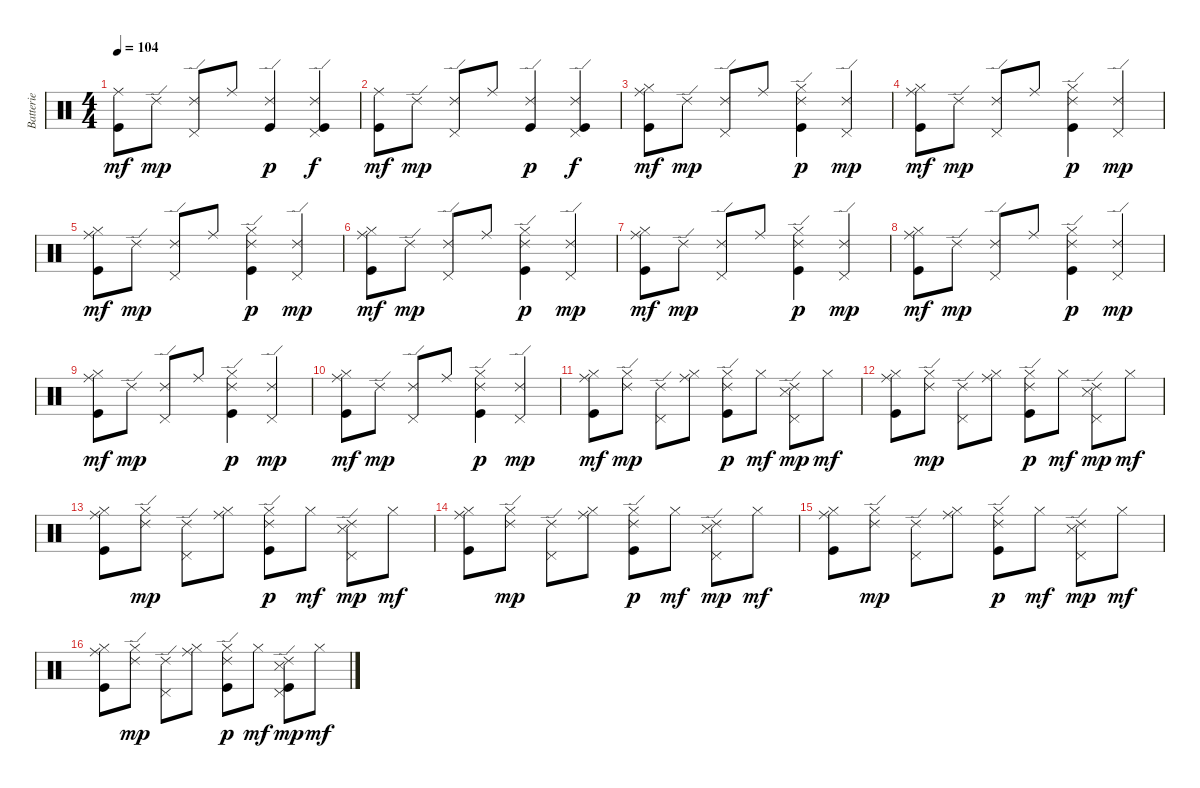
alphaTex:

\track ("Batterie" "Batterie") {instrument percussion}
\staff {score}
\articulation defaults
\ts (4 4)
\tempo 104
\clef neutral
\ks c
("Ride (middle)" "Kick (hit)").8{dy mf} "Ride (edge) 2".8{dy mp} ("Pedal Hi-Hat (hit)" "Ride (edge) 2").8 "Ride (middle)".8 ("Kick (hit)" "Ride (edge) 2").4{dy p} ("Pedal Hi-Hat (hit)" "Ride (edge) 2" "Kick (hit)").4{dy f} |
("Ride (middle)" "Kick (hit)").8{dy mf} "Ride (edge) 2".8{dy mp} ("Pedal Hi-Hat (hit)" "Ride (edge) 2").8 "Ride (middle)".8 ("Kick (hit)" "Ride (edge) 2").4{dy p} ("Pedal Hi-Hat (hit)" "Ride (edge) 2" "Kick (hit)").4{dy f} |
("Hi-Hat (closed)" "Ride (middle)" "Kick (hit)").8{dy mf} "Ride (edge) 2".8{dy mp} ("Pedal Hi-Hat (hit)" "Ride (edge) 2").8 "Ride (middle)".8 ("Hi-Hat (closed)" "Kick (hit)" "Ride (edge) 2").4{dy p} ("Pedal Hi-Hat (hit)" "Ride (edge) 2").4{dy mp} |
("Hi-Hat (closed)" "Ride (middle)" "Kick (hit)").8{dy mf} "Ride (edge) 2".8{dy mp} ("Pedal Hi-Hat (hit)" "Ride (edge) 2").8 "Ride (middle)".8 ("Hi-Hat (closed)" "Kick (hit)" "Ride (edge) 2").4{dy p} ("Pedal Hi-Hat (hit)" "Ride (edge) 2").4{dy mp} |
("Hi-Hat (closed)" "Ride (middle)" "Kick (hit)").8{dy mf} "Ride (edge) 2".8{dy mp} ("Pedal Hi-Hat (hit)" "Ride (edge) 2").8 "Ride (middle)".8 ("Hi-Hat (closed)" "Kick (hit)" "Ride (edge) 2").4{dy p} ("Pedal Hi-Hat (hit)" "Ride (edge) 2").4{dy mp} |
("Hi-Hat (closed)" "Ride (middle)" "Kick (hit)").8{dy mf} "Ride (edge) 2".8{dy mp} ("Pedal Hi-Hat (hit)" "Ride (edge) 2").8 "Ride (middle)".8 ("Hi-Hat (closed)" "Kick (hit)" "Ride (edge) 2").4{dy p} ("Pedal Hi-Hat (hit)" "Ride (edge) 2").4{dy mp} |
("Hi-Hat (closed)" "Ride (middle)" "Kick (hit)").8{dy mf} "Ride (edge) 2".8{dy mp} ("Pedal Hi-Hat (hit)" "Ride (edge) 2").8 "Ride (middle)".8 ("Hi-Hat (closed)" "Kick (hit)" "Ride (edge) 2").4{dy p} ("Pedal Hi-Hat (hit)" "Ride (edge) 2").4{dy mp} |
("Hi-Hat (closed)" "Ride (middle)" "Kick (hit)").8{dy mf} "Ride (edge) 2".8{dy mp} ("Pedal Hi-Hat (hit)" "Ride (edge) 2").8 "Ride (middle)".8 ("Hi-Hat (closed)" "Kick (hit)" "Ride (edge) 2").4{dy p} ("Pedal Hi-Hat (hit)" "Ride (edge) 2").4{dy mp} |
("Hi-Hat (closed)" "Ride (middle)" "Kick (hit)").8{dy mf} "Ride (edge) 2".8{dy mp} ("Pedal Hi-Hat (hit)" "Ride (edge) 2").8 "Ride (middle)".8 ("Hi-Hat (closed)" "Kick (hit)" "Ride (edge) 2").4{dy p} ("Pedal Hi-Hat (hit)" "Ride (edge) 2").4{dy mp} |
("Hi-Hat (closed)" "Ride (middle)" "Kick (hit)").8{dy mf} "Ride (edge) 2".8{dy mp} ("Pedal Hi-Hat (hit)" "Ride (edge) 2").8 "Ride (middle)".8 ("Hi-Hat (closed)" "Kick (hit)" "Ride (edge) 2").4{dy p} ("Pedal Hi-Hat (hit)" "Ride (edge) 2").4{dy mp} |
("Hi-Hat (closed)" "Ride (middle)" "Kick (hit)").8{dy mf} ("Hi-Hat (closed)" "Ride (edge) 2").8{dy mp} ("Pedal Hi-Hat (hit)" "Ride (edge) 2").8 ("Hi-Hat (closed)" "Ride (middle)").8 ("Hi-Hat (closed)" "Kick (hit)" "Ride (edge) 2").8{dy p} "Hi-Hat (closed)".8{dy mf} ("Snare (side stick) 3" "Pedal Hi-Hat (hit)" "Ride (edge) 2").8{dy mp} "Hi-Hat (closed)".8{dy mf} |
("Hi-Hat (closed)" "Ride (middle)" "Kick (hit)").8 ("Hi-Hat (closed)" "Ride (edge) 2").8{dy mp} ("Pedal Hi-Hat (hit)" "Ride (edge) 2").8 ("Hi-Hat (closed)" "Ride (middle)").8 ("Hi-Hat (closed)" "Kick (hit)" "Ride (edge) 2").8{dy p} "Hi-Hat (closed)".8{dy mf} ("Snare (side stick) 3" "Pedal Hi-Hat (hit)" "Ride (edge) 2").8{dy mp} "Hi-Hat (closed)".8{dy mf} |
("Hi-Hat (closed)" "Ride (middle)" "Kick (hit)").8 ("Hi-Hat (closed)" "Ride (edge) 2").8{dy mp} ("Pedal Hi-Hat (hit)" "Ride (edge) 2").8 ("Hi-Hat (closed)" "Ride (middle)").8 ("Hi-Hat (closed)" "Kick (hit)" "Ride (edge) 2").8{dy p} "Hi-Hat (closed)".8{dy mf} ("Snare (side stick) 3" "Pedal Hi-Hat (hit)" "Ride (edge) 2").8{dy mp} "Hi-Hat (closed)".8{dy mf} |
("Hi-Hat (closed)" "Ride (middle)" "Kick (hit)").8 ("Hi-Hat (closed)" "Ride (edge) 2").8{dy mp} ("Pedal Hi-Hat (hit)" "Ride (edge) 2").8 ("Hi-Hat (closed)" "Ride (middle)").8 ("Hi-Hat (closed)" "Kick (hit)" "Ride (edge) 2").8{dy p} "Hi-Hat (closed)".8{dy mf} ("Snare (side stick) 3" "Pedal Hi-Hat (hit)" "Ride (edge) 2").8{dy mp} "Hi-Hat (closed)".8{dy mf} |
("Hi-Hat (closed)" "Ride (middle)" "Kick (hit)").8 ("Hi-Hat (closed)" "Ride (edge) 2").8{dy mp} ("Pedal Hi-Hat (hit)" "Ride (edge) 2").8 ("Hi-Hat (closed)" "Ride (middle)").8 ("Hi-Hat (closed)" "Kick (hit)" "Ride (edge) 2").8{dy p} "Hi-Hat (closed)".8{dy mf} ("Snare (side stick) 3" "Pedal Hi-Hat (hit)" "Ride (edge) 2").8{dy mp} "Hi-Hat (closed)".8{dy mf} |
("Hi-Hat (closed)" "Ride (middle)" "Kick (hit)").8 ("Hi-Hat (closed)" "Ride (edge) 2").8{dy mp} ("Pedal Hi-Hat (hit)" "Ride (edge) 2").8 ("Hi-Hat (closed)" "Ride (middle)").8 ("Hi-Hat (closed)" "Kick (hit)" "Ride (edge) 2").8{dy p} "Hi-Hat (closed)".8{dy mf} ("Snare (side stick) 3" "Pedal Hi-Hat (hit)" "Kick (hit)" "Ride (edge) 2").8{dy mp} "Hi-Hat (closed)".8{dy mf}
